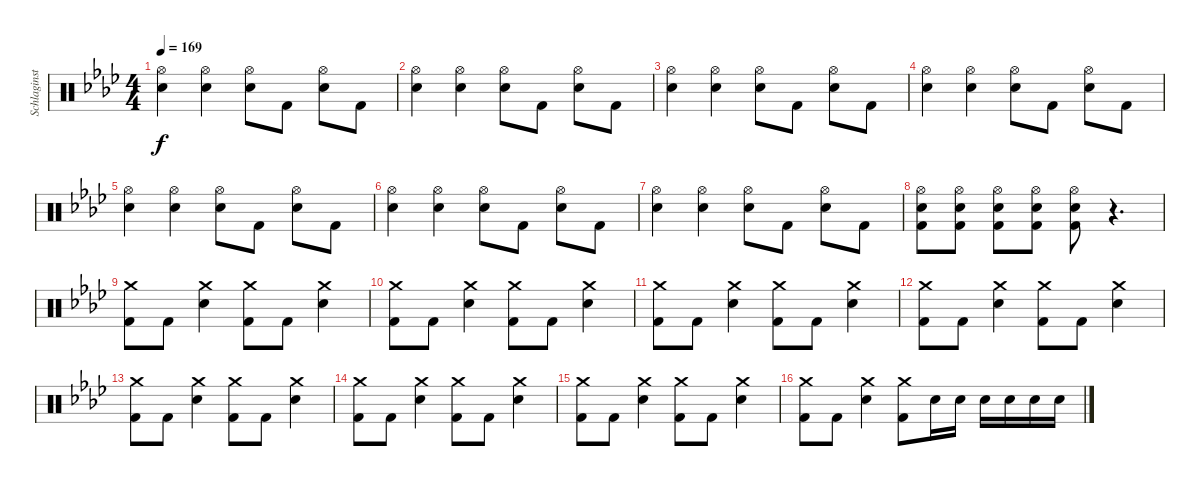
\track ("Schlaginstrumente - Auswahl" "Schlaginst") {instrument percussion}
\staff {score}
\articulation defaults
\ts (4 4)
\tempo 169
\clef neutral
\ks fminor
("Hi-Hat (open)" "Electric Snare (hit)").4{dy f} ("Hi-Hat (open)" "Electric Snare (hit)").4 ("Hi-Hat (open)" "Electric Snare (hit)").8 "Kick (hit) 2".8 ("Hi-Hat (open)" "Electric Snare (hit)").8 "Kick (hit) 2".8 |
("Hi-Hat (open)" "Electric Snare (hit)").4 ("Hi-Hat (open)" "Electric Snare (hit)").4 ("Hi-Hat (open)" "Electric Snare (hit)").8 "Kick (hit) 2".8 ("Hi-Hat (open)" "Electric Snare (hit)").8 "Kick (hit) 2".8 |
("Hi-Hat (open)" "Electric Snare (hit)").4 ("Hi-Hat (open)" "Electric Snare (hit)").4 ("Hi-Hat (open)" "Electric Snare (hit)").8 "Kick (hit) 2".8 ("Hi-Hat (open)" "Electric Snare (hit)").8 "Kick (hit) 2".8 |
("Hi-Hat (open)" "Electric Snare (hit)").4 ("Hi-Hat (open)" "Electric Snare (hit)").4 ("Hi-Hat (open)" "Electric Snare (hit)").8 "Kick (hit) 2".8 ("Hi-Hat (open)" "Electric Snare (hit)").8 "Kick (hit) 2".8 |
("Hi-Hat (open)" "Electric Snare (hit)").4 ("Hi-Hat (open)" "Electric Snare (hit)").4 ("Hi-Hat (open)" "Electric Snare (hit)").8 "Kick (hit) 2".8 ("Hi-Hat (open)" "Electric Snare (hit)").8 "Kick (hit) 2".8 |
("Hi-Hat (open)" "Electric Snare (hit)").4 ("Hi-Hat (open)" "Electric Snare (hit)").4 ("Hi-Hat (open)" "Electric Snare (hit)").8 "Kick (hit) 2".8 ("Hi-Hat (open)" "Electric Snare (hit)").8 "Kick (hit) 2".8 |
("Hi-Hat (open)" "Electric Snare (hit)").4 ("Hi-Hat (open)" "Electric Snare (hit)").4 ("Hi-Hat (open)" "Electric Snare (hit)").8 "Kick (hit) 2".8 ("Hi-Hat (open)" "Electric Snare (hit)").8 "Kick (hit) 2".8 |
("Hi-Hat (open)" "Electric Snare (hit)" "Kick (hit) 2").8 ("Hi-Hat (open)" "Electric Snare (hit)" "Kick (hit) 2").8 ("Hi-Hat (open)" "Electric Snare (hit)" "Kick (hit) 2").8 ("Hi-Hat (open)" "Electric Snare (hit)" "Kick (hit) 2").8 ("Hi-Hat (open)" "Electric Snare (hit)" "Kick (hit) 2").8 r.4{d} |
("Crash medium (hit)" "Kick (hit) 2").8 "Kick (hit) 2".8 ("Crash medium (hit)" "Electric Snare (hit)").4 ("Crash medium (hit)" "Kick (hit) 2").8 "Kick (hit) 2".8 ("Crash medium (hit)" "Electric Snare (hit)").4 |
("Crash medium (hit)" "Kick (hit) 2").8 "Kick (hit) 2".8 ("Crash medium (hit)" "Electric Snare (hit)").4 ("Crash medium (hit)" "Kick (hit) 2").8 "Kick (hit) 2".8 ("Crash medium (hit)" "Electric Snare (hit)").4 |
("Crash medium (hit)" "Kick (hit) 2").8 "Kick (hit) 2".8 ("Crash medium (hit)" "Electric Snare (hit)").4 ("Crash medium (hit)" "Kick (hit) 2").8 "Kick (hit) 2".8 ("Crash medium (hit)" "Electric Snare (hit)").4 |
("Crash medium (hit)" "Kick (hit) 2").8 "Kick (hit) 2".8 ("Crash medium (hit)" "Electric Snare (hit)").4 ("Crash medium (hit)" "Kick (hit) 2").8 "Kick (hit) 2".8 ("Crash medium (hit)" "Electric Snare (hit)").4 |
("Crash medium (hit)" "Kick (hit) 2").8 "Kick (hit) 2".8 ("Crash medium (hit)" "Electric Snare (hit)").4 ("Crash medium (hit)" "Kick (hit) 2").8 "Kick (hit) 2".8 ("Crash medium (hit)" "Electric Snare (hit)").4 |
("Crash medium (hit)" "Kick (hit) 2").8 "Kick (hit) 2".8 ("Crash medium (hit)" "Electric Snare (hit)").4 ("Crash medium (hit)" "Kick (hit) 2").8 "Kick (hit) 2".8 ("Crash medium (hit)" "Electric Snare (hit)").4 |
("Crash medium (hit)" "Kick (hit) 2").8 "Kick (hit) 2".8 ("Crash medium (hit)" "Electric Snare (hit)").4 ("Crash medium (hit)" "Kick (hit) 2").8 "Kick (hit) 2".8 ("Crash medium (hit)" "Electric Snare (hit)").4 |
("Crash medium (hit)" "Kick (hit) 2").8 "Kick (hit) 2".8 ("Crash medium (hit)" "Electric Snare (hit)").4 ("Crash medium (hit)" "Kick (hit) 2").8 "Electric Snare (hit)".16 "Electric Snare (hit)".16 "Electric Snare (hit)".16 "Electric Snare (hit)".16 "Electric Snare (hit)".16 "Electric Snare (hit)".16
